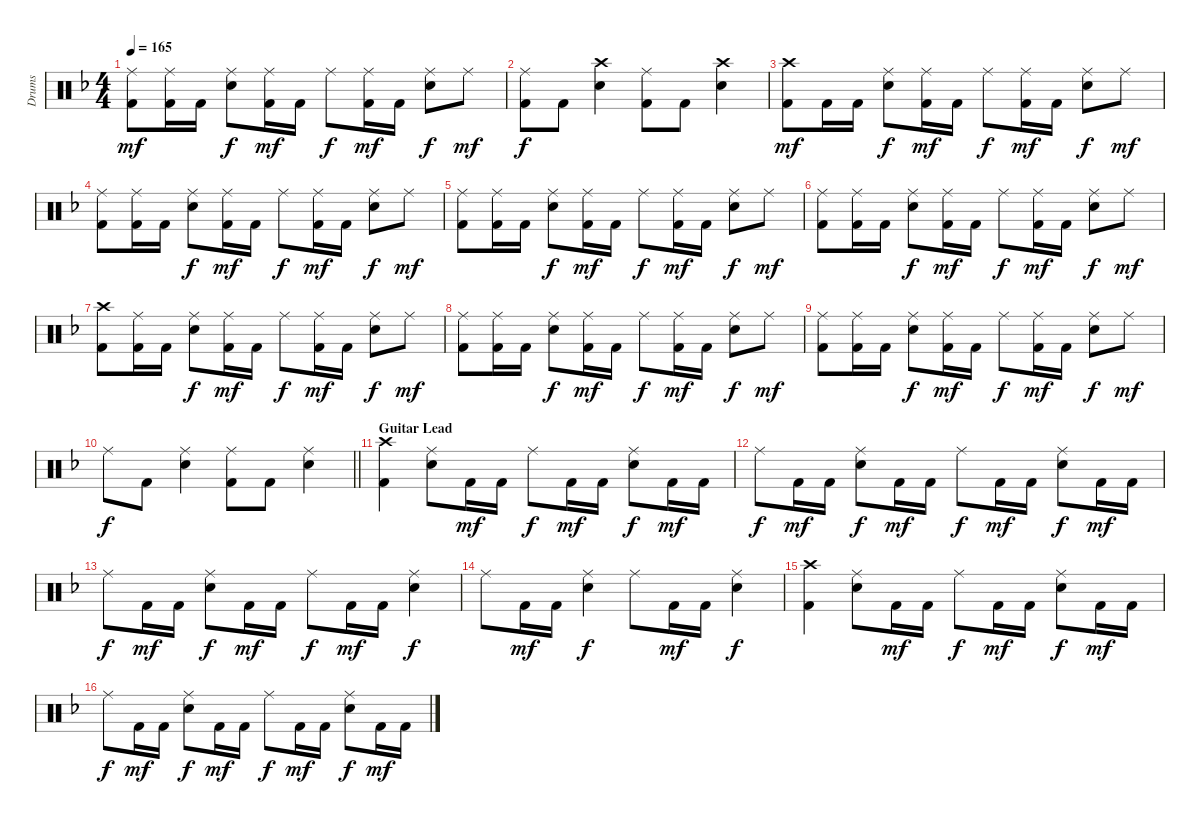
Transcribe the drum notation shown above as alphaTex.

\track ("Drums" "Drums") {instrument percussion}
\staff {score}
\articulation defaults
\ts (4 4)
\tempo 165
\clef neutral
\ks f
("Ride (middle)" "Kick (hit) 2").8{dy mf} ("Ride (middle)" "Kick (hit) 2").16 "Kick (hit) 2".16 ("Ride (middle)" "Electric Snare (hit)").8{dy f} ("Ride (middle)" "Kick (hit) 2").16{dy mf} "Kick (hit) 2".16 "Ride (middle)".8{dy f} ("Ride (middle)" "Kick (hit) 2").16{dy mf} "Kick (hit) 2".16 ("Ride (middle)" "Electric Snare (hit)").8{dy f} "Ride (middle)".8{dy mf} |
("Ride (middle)" "Kick (hit) 2").8{dy f} "Kick (hit) 2".8 ("Crash high (hit)" "Electric Snare (hit)").4 ("Ride (middle)" "Kick (hit) 2").8 "Kick (hit) 2".8 ("Crash high (hit)" "Electric Snare (hit)").4 |
("Crash high (hit)" "Kick (hit) 2").8{dy mf} "Kick (hit) 2".16 "Kick (hit) 2".16 ("Ride (middle)" "Electric Snare (hit)").8{dy f} ("Ride (middle)" "Kick (hit) 2").16{dy mf} "Kick (hit) 2".16 "Ride (middle)".8{dy f} ("Ride (middle)" "Kick (hit) 2").16{dy mf} "Kick (hit) 2".16 ("Ride (middle)" "Electric Snare (hit)").8{dy f} "Ride (middle)".8{dy mf} |
("Ride (middle)" "Kick (hit) 2").8 ("Ride (middle)" "Kick (hit) 2").16 "Kick (hit) 2".16 ("Ride (middle)" "Electric Snare (hit)").8{dy f} ("Ride (middle)" "Kick (hit) 2").16{dy mf} "Kick (hit) 2".16 "Ride (middle)".8{dy f} ("Ride (middle)" "Kick (hit) 2").16{dy mf} "Kick (hit) 2".16 ("Ride (middle)" "Electric Snare (hit)").8{dy f} "Ride (middle)".8{dy mf} |
("Ride (middle)" "Kick (hit) 2").8 ("Ride (middle)" "Kick (hit) 2").16 "Kick (hit) 2".16 ("Ride (middle)" "Electric Snare (hit)").8{dy f} ("Ride (middle)" "Kick (hit) 2").16{dy mf} "Kick (hit) 2".16 "Ride (middle)".8{dy f} ("Ride (middle)" "Kick (hit) 2").16{dy mf} "Kick (hit) 2".16 ("Ride (middle)" "Electric Snare (hit)").8{dy f} "Ride (middle)".8{dy mf} |
("Ride (middle)" "Kick (hit) 2").8 ("Ride (middle)" "Kick (hit) 2").16 "Kick (hit) 2".16 ("Ride (middle)" "Electric Snare (hit)").8{dy f} ("Ride (middle)" "Kick (hit) 2").16{dy mf} "Kick (hit) 2".16 "Ride (middle)".8{dy f} ("Ride (middle)" "Kick (hit) 2").16{dy mf} "Kick (hit) 2".16 ("Ride (middle)" "Electric Snare (hit)").8{dy f} "Ride (middle)".8{dy mf} |
("Crash high (hit)" "Kick (hit) 2").8 ("Ride (middle)" "Kick (hit) 2").16 "Kick (hit) 2".16 ("Ride (middle)" "Electric Snare (hit)").8{dy f} ("Ride (middle)" "Kick (hit) 2").16{dy mf} "Kick (hit) 2".16 "Ride (middle)".8{dy f} ("Ride (middle)" "Kick (hit) 2").16{dy mf} "Kick (hit) 2".16 ("Ride (middle)" "Electric Snare (hit)").8{dy f} "Ride (middle)".8{dy mf} |
("Ride (middle)" "Kick (hit) 2").8 ("Ride (middle)" "Kick (hit) 2").16 "Kick (hit) 2".16 ("Ride (middle)" "Electric Snare (hit)").8{dy f} ("Ride (middle)" "Kick (hit) 2").16{dy mf} "Kick (hit) 2".16 "Ride (middle)".8{dy f} ("Ride (middle)" "Kick (hit) 2").16{dy mf} "Kick (hit) 2".16 ("Ride (middle)" "Electric Snare (hit)").8{dy f} "Ride (middle)".8{dy mf} |
("Ride (middle)" "Kick (hit) 2").8 ("Ride (middle)" "Kick (hit) 2").16 "Kick (hit) 2".16 ("Ride (middle)" "Electric Snare (hit)").8{dy f} ("Ride (middle)" "Kick (hit) 2").16{dy mf} "Kick (hit) 2".16 "Ride (middle)".8{dy f} ("Ride (middle)" "Kick (hit) 2").16{dy mf} "Kick (hit) 2".16 ("Ride (middle)" "Electric Snare (hit)").8{dy f} "Ride (middle)".8{dy mf} |
\barLineRight lightlight "Ride (middle)".8{dy f} "Kick (hit) 2".8
("Ride (middle)" "Electric Snare (hit)").4 ("Ride (middle)" "Kick (hit) 2").8 "Kick (hit) 2".8 ("Ride (middle)" "Electric Snare (hit)").4 |
\section ("" "Guitar Lead")
("Crash high (hit)" "Kick (hit) 2").4 ("Ride (middle)" "Electric Snare (hit)").8 "Kick (hit) 2".16{dy mf} "Kick (hit) 2".16 "Ride (middle)".8{dy f} "Kick (hit) 2".16{dy mf} "Kick (hit) 2".16 ("Ride (middle)" "Electric Snare (hit)").8{dy f} "Kick (hit) 2".16{dy mf} "Kick (hit) 2".16 |
"Ride (middle)".8{dy f} "Kick (hit) 2".16{dy mf} "Kick (hit) 2".16 ("Ride (middle)" "Electric Snare (hit)").8{dy f} "Kick (hit) 2".16{dy mf} "Kick (hit) 2".16 "Ride (middle)".8{dy f} "Kick (hit) 2".16{dy mf} "Kick (hit) 2".16 ("Ride (middle)" "Electric Snare (hit)").8{dy f} "Kick (hit) 2".16{dy mf} "Kick (hit) 2".16 |
"Ride (middle)".8{dy f} "Kick (hit) 2".16{dy mf} "Kick (hit) 2".16 ("Ride (middle)" "Electric Snare (hit)").8{dy f} "Kick (hit) 2".16{dy mf} "Kick (hit) 2".16 "Ride (middle)".8{dy f} "Kick (hit) 2".16{dy mf} "Kick (hit) 2".16 ("Ride (middle)" "Electric Snare (hit)").4{dy f} |
"Ride (middle)".8 "Kick (hit) 2".16{dy mf} "Kick (hit) 2".16 ("Ride (middle)" "Electric Snare (hit)").4{dy f} "Ride (middle)".8 "Kick (hit) 2".16{dy mf} "Kick (hit) 2".16 ("Ride (middle)" "Electric Snare (hit)").4{dy f} |
("Crash high (hit)" "Kick (hit) 2").4 ("Ride (middle)" "Electric Snare (hit)").8 "Kick (hit) 2".16{dy mf} "Kick (hit) 2".16 "Ride (middle)".8{dy f} "Kick (hit) 2".16{dy mf} "Kick (hit) 2".16 ("Ride (middle)" "Electric Snare (hit)").8{dy f} "Kick (hit) 2".16{dy mf} "Kick (hit) 2".16 |
"Ride (middle)".8{dy f} "Kick (hit) 2".16{dy mf} "Kick (hit) 2".16 ("Ride (middle)" "Electric Snare (hit)").8{dy f} "Kick (hit) 2".16{dy mf} "Kick (hit) 2".16 "Ride (middle)".8{dy f} "Kick (hit) 2".16{dy mf} "Kick (hit) 2".16 ("Ride (middle)" "Electric Snare (hit)").8{dy f} "Kick (hit) 2".16{dy mf} "Kick (hit) 2".16
